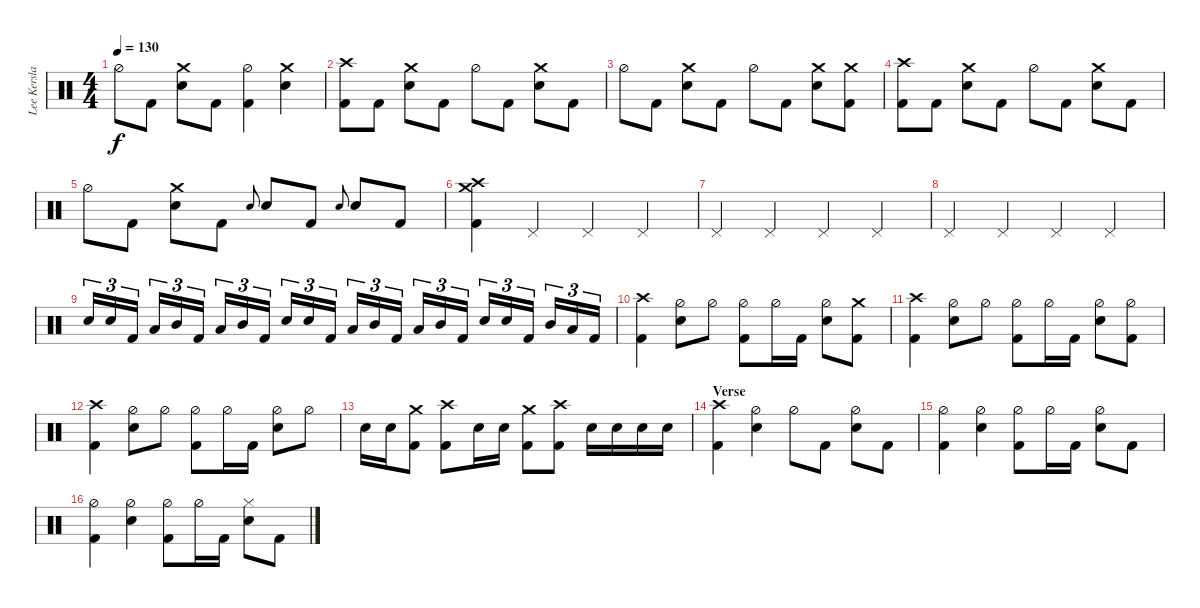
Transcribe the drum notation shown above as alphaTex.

\track ("Lee Kerslake" "Lee Kersla") {instrument percussion}
\staff {score}
\articulation defaults
\ts (4 4)
\tempo 130
\clef neutral
\ks c "Hi-Hat (half)".8{dy f} "Kick (hit) 2".8
("Snare (hit) 2" "Crash medium (hit)").8 "Kick (hit) 2".8 ("Kick (hit) 2" "Hi-Hat (half)").4 ("Snare (hit) 2" "Crash medium (hit)").4 |
("Kick (hit) 2" "Crash high (hit)").8 "Kick (hit) 2".8 ("Snare (hit) 2" "Crash medium (hit)").8 "Kick (hit) 2".8 "Hi-Hat (half)".8 "Kick (hit) 2".8 ("Snare (hit) 2" "Crash medium (hit)").8 "Kick (hit) 2".8 |
"Hi-Hat (half)".8 "Kick (hit) 2".8 ("Snare (hit) 2" "Crash medium (hit)").8 "Kick (hit) 2".8 "Hi-Hat (half)".8 "Kick (hit) 2".8 ("Snare (hit) 2" "Crash medium (hit)").8 ("Kick (hit) 2" "Crash medium (hit)").8 |
("Kick (hit) 2" "Crash high (hit)").8 "Kick (hit) 2".8 ("Snare (hit) 2" "Crash medium (hit)").8 "Kick (hit) 2".8 "Hi-Hat (half)".8 "Kick (hit) 2".8 ("Snare (hit) 2" "Crash medium (hit)").8 "Kick (hit) 2".8 |
"Hi-Hat (half)".8 "Kick (hit) 2".8 ("Snare (hit) 2" "Crash medium (hit)").8 "Kick (hit) 2".8 "Snare (hit)".8{gr onbeat} "Snare (hit) 2".8 "Kick (hit) 2".8 "Snare (hit)".8{gr onbeat} "Snare (hit) 2".8 "Kick (hit) 2".8 |
("Kick (hit) 2" "Crash medium (hit)" "Crash high (hit)").4 "Pedal Hi-Hat (hit)".4 "Pedal Hi-Hat (hit)".4 "Pedal Hi-Hat (hit)".4 |
"Pedal Hi-Hat (hit)".4 "Pedal Hi-Hat (hit)".4 "Pedal Hi-Hat (hit)".4 "Pedal Hi-Hat (hit)".4 |
"Pedal Hi-Hat (hit)".4 "Pedal Hi-Hat (hit)".4 "Pedal Hi-Hat (hit)".4 "Pedal Hi-Hat (hit)".4 |
"Snare (hit) 2".16{tu (3 2)} "Snare (hit) 2".16{tu (3 2)} "Kick (hit) 2".16{tu (3 2)} "Low Tom (hit)".16{tu (3 2)} "Mid Tom (hit)".16{tu (3 2)} "Kick (hit) 2".16{tu (3 2)} "Low Tom (hit)".16{tu (3 2)} "Mid Tom (hit)".16{tu (3 2)} "Kick (hit) 2".16{tu (3 2)} "Snare (hit) 2".16{tu (3 2)} "Snare (hit) 2".16{tu (3 2)} "Kick (hit) 2".16{tu (3 2)} "Low Tom (hit)".16{tu (3 2)} "Mid Tom (hit)".16{tu (3 2)} "Kick (hit) 2".16{tu (3 2)} "Low Tom (hit)".16{tu (3 2)} "Mid Tom (hit)".16{tu (3 2)} "Kick (hit) 2".16{tu (3 2)} "Snare (hit) 2".16{tu (3 2)} "Snare (hit) 2".16{tu (3 2)} "Kick (hit) 2".16{tu (3 2)} "Mid Tom (hit)".16{tu (3 2)} "Low Tom (hit)".16{tu (3 2)} "Kick (hit) 2".16{tu (3 2)} |
("Kick (hit) 2" "Crash high (hit)").4 ("Snare (hit) 2" "Hi-Hat (half)").8 "Hi-Hat (half)".8 ("Kick (hit) 2" "Hi-Hat (half)").8 "Hi-Hat (half)".16 "Kick (hit) 2".16 ("Snare (hit) 2" "Hi-Hat (half)").8 ("Kick (hit) 2" "Crash medium (hit)").8 |
("Kick (hit) 2" "Crash high (hit)").4 ("Snare (hit) 2" "Hi-Hat (half)").8 "Hi-Hat (half)".8 ("Kick (hit) 2" "Hi-Hat (half)").8 "Hi-Hat (half)".16 "Kick (hit) 2".16 ("Snare (hit) 2" "Hi-Hat (half)").8 ("Kick (hit) 2" "Hi-Hat (half)").8 |
("Kick (hit) 2" "Crash high (hit)").4 ("Snare (hit) 2" "Hi-Hat (half)").8 "Hi-Hat (half)".8 ("Kick (hit) 2" "Hi-Hat (half)").8 "Hi-Hat (half)".16 "Kick (hit) 2".16 ("Snare (hit) 2" "Hi-Hat (half)").8 "Hi-Hat (half)".8 |
"Snare (hit) 2".16 "Snare (hit) 2".16 ("Kick (hit) 2" "Crash medium (hit)").8 ("Kick (hit) 2" "Crash high (hit)").8 "Snare (hit) 2".16 "Snare (hit) 2".16 ("Kick (hit) 2" "Crash medium (hit)").8 ("Kick (hit) 2" "Crash high (hit)").8 "Snare (hit) 2".16 "Snare (hit) 2".16 "Snare (hit) 2".16 "Snare (hit) 2".16 |
\section ("" "Verse")
("Kick (hit) 2" "Crash high (hit)").4 ("Snare (hit) 2" "Hi-Hat (half)").4 "Hi-Hat (half)".8 "Kick (hit) 2".8 ("Snare (hit) 2" "Hi-Hat (half)").8 "Kick (hit) 2".8 |
("Kick (hit) 2" "Hi-Hat (half)").4 ("Snare (hit) 2" "Hi-Hat (half)").4 ("Kick (hit) 2" "Hi-Hat (half)").8 "Hi-Hat (half)".16 "Kick (hit) 2".16 ("Snare (hit) 2" "Hi-Hat (half)").8 "Kick (hit) 2".8 |
("Kick (hit) 2" "Hi-Hat (half)").4 ("Snare (hit) 2" "Hi-Hat (half)").4 ("Kick (hit) 2" "Hi-Hat (half)").8 "Hi-Hat (half)".16 "Kick (hit) 2".16 ("Hi-Hat (closed)" "Snare (hit) 2").8 "Kick (hit) 2".8
